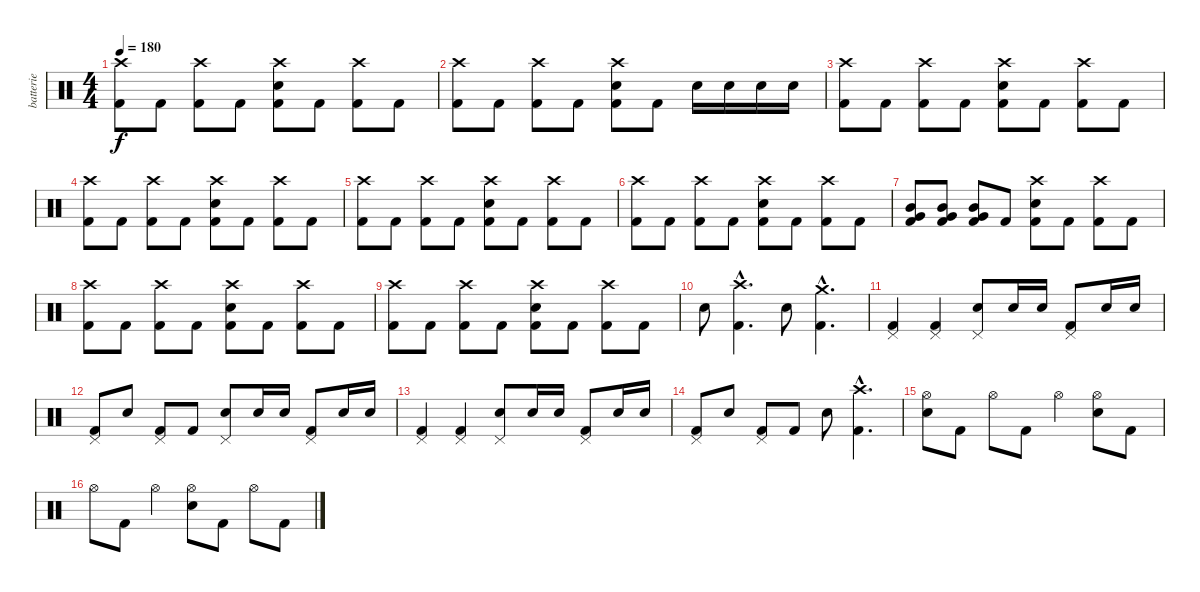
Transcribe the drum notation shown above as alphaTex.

\track ("batterie" "batterie") {instrument percussion}
\staff {score}
\articulation defaults
\ts (4 4)
\tempo 180
\clef neutral
\ks c
("Crash high (hit)" "Kick (hit) 2").8{dy f} "Kick (hit) 2".8 ("Crash high (hit)" "Kick (hit) 2").8 "Kick (hit) 2".8 ("Crash high (hit)" "Electric Snare (hit)" "Kick (hit) 2").8 "Kick (hit) 2".8 ("Crash high (hit)" "Kick (hit) 2").8 "Kick (hit) 2".8 |
("Crash high (hit)" "Kick (hit) 2").8 "Kick (hit) 2".8 ("Crash high (hit)" "Kick (hit) 2").8 "Kick (hit) 2".8 ("Crash high (hit)" "Electric Snare (hit)" "Kick (hit) 2").8 "Kick (hit) 2".8 "Electric Snare (hit)".16 "Electric Snare (hit)".16 "Electric Snare (hit)".16 "Electric Snare (hit)".16 |
("Crash high (hit)" "Kick (hit) 2").8 "Kick (hit) 2".8 ("Crash high (hit)" "Kick (hit) 2").8 "Kick (hit) 2".8 ("Crash high (hit)" "Electric Snare (hit)" "Kick (hit) 2").8 "Kick (hit) 2".8 ("Crash high (hit)" "Kick (hit) 2").8 "Kick (hit) 2".8 |
("Crash high (hit)" "Kick (hit) 2").8 "Kick (hit) 2".8 ("Crash high (hit)" "Kick (hit) 2").8 "Kick (hit) 2".8 ("Crash high (hit)" "Electric Snare (hit)" "Kick (hit) 2").8 "Kick (hit) 2".8 ("Crash high (hit)" "Kick (hit) 2").8 "Kick (hit) 2".8 |
("Crash high (hit)" "Kick (hit) 2").8 "Kick (hit) 2".8 ("Crash high (hit)" "Kick (hit) 2").8 "Kick (hit) 2".8 ("Crash high (hit)" "Electric Snare (hit)" "Kick (hit) 2").8 "Kick (hit) 2".8 ("Crash high (hit)" "Kick (hit) 2").8 "Kick (hit) 2".8 |
("Crash high (hit)" "Kick (hit) 2").8 "Kick (hit) 2".8 ("Crash high (hit)" "Kick (hit) 2").8 "Kick (hit) 2".8 ("Crash high (hit)" "Electric Snare (hit)" "Kick (hit) 2").8 "Kick (hit) 2".8 ("Crash high (hit)" "Kick (hit) 2").8 "Kick (hit) 2".8 |
("Mid Tom (hit)" "Very Low Tom (hit)" "Kick (hit) 2").8 ("Mid Tom (hit)" "Very Low Tom (hit)" "Kick (hit) 2").8 ("Mid Tom (hit)" "Very Low Tom (hit)" "Kick (hit) 2").8 "Kick (hit) 2".8 ("Crash high (hit)" "Electric Snare (hit)" "Kick (hit) 2").8 "Kick (hit) 2".8 ("Crash high (hit)" "Kick (hit) 2").8 "Kick (hit) 2".8 |
("Crash high (hit)" "Kick (hit) 2").8 "Kick (hit) 2".8 ("Crash high (hit)" "Kick (hit) 2").8 "Kick (hit) 2".8 ("Crash high (hit)" "Electric Snare (hit)" "Kick (hit) 2").8 "Kick (hit) 2".8 ("Crash high (hit)" "Kick (hit) 2").8 "Kick (hit) 2".8 |
("Crash high (hit)" "Kick (hit) 2").8 "Kick (hit) 2".8 ("Crash high (hit)" "Kick (hit) 2").8 "Kick (hit) 2".8 ("Crash high (hit)" "Electric Snare (hit)" "Kick (hit) 2").8 "Kick (hit) 2".8 ("Crash high (hit)" "Kick (hit) 2").8 "Kick (hit) 2".8 |
"Electric Snare (hit)".8 ("Crash high (hit)"{hac} "Kick (hit) 2"{hac}).4{d} "Electric Snare (hit)".8 ("Crash medium (hit)"{hac} "Kick (hit) 2"{hac}).4{d} |
("Pedal Hi-Hat (hit)" "Kick (hit) 2").4 ("Pedal Hi-Hat (hit)" "Kick (hit) 2").4 ("Pedal Hi-Hat (hit)" "Electric Snare (hit)").8 "Electric Snare (hit)".16 "Electric Snare (hit)".16 ("Pedal Hi-Hat (hit)" "Kick (hit) 2").8 "Electric Snare (hit)".16 "Electric Snare (hit)".16 |
("Pedal Hi-Hat (hit)" "Kick (hit) 2").8 "Electric Snare (hit)".8 ("Pedal Hi-Hat (hit)" "Kick (hit) 2").8 "Kick (hit) 2".8 ("Pedal Hi-Hat (hit)" "Electric Snare (hit)").8 "Electric Snare (hit)".16 "Electric Snare (hit)".16 ("Pedal Hi-Hat (hit)" "Kick (hit) 2").8 "Electric Snare (hit)".16 "Electric Snare (hit)".16 |
("Pedal Hi-Hat (hit)" "Kick (hit) 2").4 ("Pedal Hi-Hat (hit)" "Kick (hit) 2").4 ("Pedal Hi-Hat (hit)" "Electric Snare (hit)").8 "Electric Snare (hit)".16 "Electric Snare (hit)".16 ("Pedal Hi-Hat (hit)" "Kick (hit) 2").8 "Electric Snare (hit)".16 "Electric Snare (hit)".16 |
("Pedal Hi-Hat (hit)" "Kick (hit) 2").8 "Electric Snare (hit)".8 ("Pedal Hi-Hat (hit)" "Kick (hit) 2").8 "Kick (hit) 2".8 "Electric Snare (hit)".8 ("Crash high (hit)"{hac} "Kick (hit) 2"{hac}).4{d} |
("Hi-Hat (open)" "Electric Snare (hit)").8 "Kick (hit) 2".8 "Hi-Hat (open)".8 "Kick (hit) 2".8 "Hi-Hat (open)".4 ("Hi-Hat (open)" "Electric Snare (hit)").8 "Kick (hit) 2".8 |
"Hi-Hat (open)".8 "Kick (hit) 2".8 "Hi-Hat (open)".4 ("Hi-Hat (open)" "Electric Snare (hit)").8 "Kick (hit) 2".8 "Hi-Hat (open)".8 "Kick (hit) 2".8
